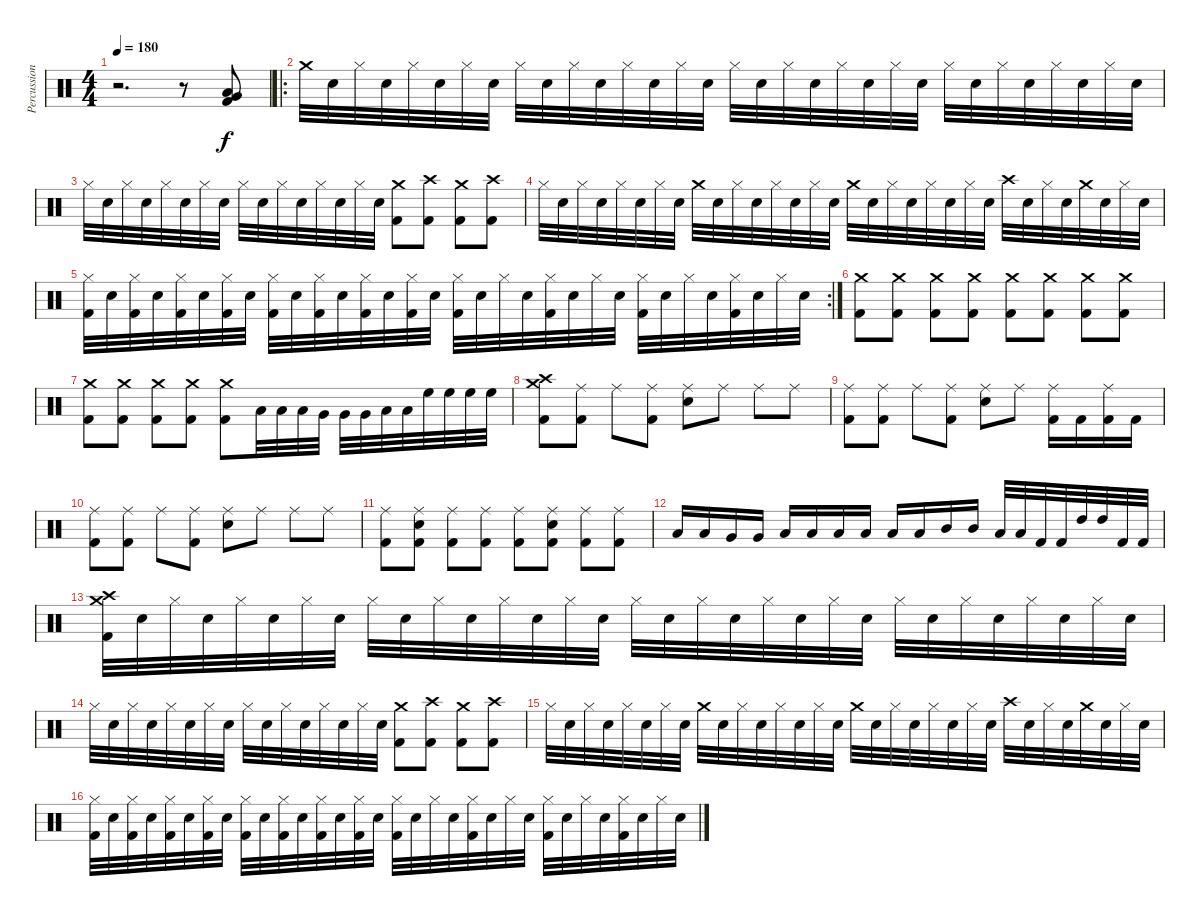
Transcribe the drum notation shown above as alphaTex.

\track ("Percussion" "Percussion") {instrument percussion}
\staff {score}
\articulation defaults
\ts (4 4)
\tempo 180
\clef neutral
\ks c
r.2{d dy f} r.8 ("Very Low Tom (hit)" "Low Tom (hit)" "Kick (hit) 2").8 |
\ro "Crash medium (hit)".32 "Snare (hit) 2".32 "Hi-Hat (closed)".32 "Snare (hit) 2".32 "Hi-Hat (closed)".32 "Snare (hit) 2".32 "Hi-Hat (closed)".32 "Snare (hit) 2".32 "Hi-Hat (closed)".32 "Snare (hit) 2".32 "Hi-Hat (closed)".32 "Snare (hit) 2".32 "Hi-Hat (closed)".32 "Snare (hit) 2".32 "Hi-Hat (closed)".32 "Snare (hit) 2".32 "Hi-Hat (closed)".32 "Snare (hit) 2".32 "Hi-Hat (closed)".32 "Snare (hit) 2".32 "Hi-Hat (closed)".32 "Snare (hit) 2".32 "Hi-Hat (closed)".32 "Snare (hit) 2".32 "Hi-Hat (closed)".32 "Snare (hit) 2".32 "Hi-Hat (closed)".32 "Snare (hit) 2".32 "Hi-Hat (closed)".32 "Snare (hit) 2".32 "Hi-Hat (closed)".32 "Snare (hit) 2".32
|
"Hi-Hat (closed)".32 "Snare (hit) 2".32 "Hi-Hat (closed)".32 "Snare (hit) 2".32 "Hi-Hat (closed)".32 "Snare (hit) 2".32 "Hi-Hat (closed)".32 "Snare (hit) 2".32 "Hi-Hat (closed)".32 "Snare (hit) 2".32 "Hi-Hat (closed)".32 "Snare (hit) 2".32 "Hi-Hat (closed)".32 "Snare (hit) 2".32 "Hi-Hat (closed)".32 "Snare (hit) 2".32 ("Crash medium (hit)" "Kick (hit) 2").8 ("Crash high (hit)" "Kick (hit) 2").8 ("Crash medium (hit)" "Kick (hit) 2").8 ("Crash high (hit)" "Kick (hit) 2").8 |
"Hi-Hat (closed)".32 "Snare (hit) 2".32 "Hi-Hat (closed)".32 "Snare (hit) 2".32 "Hi-Hat (closed)".32 "Snare (hit) 2".32 "Hi-Hat (closed)".32 "Snare (hit) 2".32 "Crash medium (hit)".32 "Snare (hit) 2".32 "Hi-Hat (closed)".32 "Snare (hit) 2".32 "Hi-Hat (closed)".32 "Snare (hit) 2".32 "Hi-Hat (closed)".32 "Snare (hit) 2".32 "Crash medium (hit)".32 "Snare (hit) 2".32 "Hi-Hat (closed)".32 "Snare (hit) 2".32 "Hi-Hat (closed)".32 "Snare (hit) 2".32 "Hi-Hat (closed)".32 "Snare (hit) 2".32 "Crash high (hit)".32 "Snare (hit) 2".32 "Hi-Hat (closed)".32 "Snare (hit) 2".32 "Crash medium (hit)".32 "Snare (hit) 2".32 "Hi-Hat (closed)".32 "Snare (hit) 2".32 |
\rc 2
("Hi-Hat (closed)" "Kick (hit) 2").32 "Snare (hit) 2".32 ("Hi-Hat (closed)" "Kick (hit) 2").32 "Snare (hit) 2".32 ("Hi-Hat (closed)" "Kick (hit) 2").32 "Snare (hit) 2".32 ("Hi-Hat (closed)" "Kick (hit) 2").32 "Snare (hit) 2".32 ("Hi-Hat (closed)" "Kick (hit) 2").32 "Snare (hit) 2".32 ("Hi-Hat (closed)" "Kick (hit) 2").32 "Snare (hit) 2".32 ("Hi-Hat (closed)" "Kick (hit) 2").32 "Snare (hit) 2".32 ("Hi-Hat (closed)" "Kick (hit) 2").32 "Snare (hit) 2".32 ("Hi-Hat (closed)" "Kick (hit) 2").32 "Snare (hit) 2".32 "Hi-Hat (closed)".32 "Snare (hit) 2".32 ("Hi-Hat (closed)" "Kick (hit) 2").32 "Snare (hit) 2".32 "Hi-Hat (closed)".32 "Snare (hit) 2".32 ("Hi-Hat (closed)" "Kick (hit) 2").32 "Snare (hit) 2".32 "Hi-Hat (closed)".32 "Snare (hit) 2".32 ("Hi-Hat (closed)" "Kick (hit) 2").32 "Snare (hit) 2".32 "Hi-Hat (closed)".32 "Snare (hit) 2".32 |
("Crash medium (hit)" "Kick (hit) 2").8 ("Crash medium (hit)" "Kick (hit) 2").8 ("Crash medium (hit)" "Kick (hit) 2").8 ("Crash medium (hit)" "Kick (hit) 2").8 ("Crash medium (hit)" "Kick (hit) 2").8 ("Crash medium (hit)" "Kick (hit) 2").8 ("Crash medium (hit)" "Kick (hit) 2").8 ("Crash medium (hit)" "Kick (hit) 2").8 |
("Crash medium (hit)" "Kick (hit) 2").8 ("Crash medium (hit)" "Kick (hit) 2").8 ("Crash medium (hit)" "Kick (hit) 2").8 ("Crash medium (hit)" "Kick (hit) 2").8 ("Crash medium (hit)" "Kick (hit) 2").8 "Low Tom (hit)".32 "Low Tom (hit)".32 "Low Tom (hit)".32 "Very Low Tom (hit)".32 "Very Low Tom (hit)".32 "Very Low Tom (hit)".32 "Low Tom (hit)".32 "Low Tom (hit)".32 "High Floor Tom (hit)".32 "High Floor Tom (hit)".32 "High Floor Tom (hit)".32 "High Floor Tom (hit)".32 |
("Crash high (hit)" "Crash medium (hit)" "Kick (hit) 2").8 ("Ride (middle)" "Kick (hit) 2").8 "Ride (middle)".8 ("Ride (middle)" "Kick (hit) 2").8 ("Ride (middle)" "Snare (hit) 2").8 "Ride (middle)".8 "Ride (middle)".8 "Ride (middle)".8 |
("Ride (middle)" "Kick (hit) 2").8 ("Ride (middle)" "Kick (hit) 2").8 "Ride (middle)".8 ("Ride (middle)" "Kick (hit) 2").8 ("Ride (middle)" "Snare (hit) 2").8 "Ride (middle)".8 ("Ride (middle)" "Kick (hit) 2").16 "Kick (hit) 2".16 ("Ride (middle)" "Kick (hit) 2").16 "Kick (hit) 2".16 |
("Ride (middle)" "Kick (hit) 2").8 ("Ride (middle)" "Kick (hit) 2").8 "Ride (middle)".8 ("Ride (middle)" "Kick (hit) 2").8 ("Ride (middle)" "Snare (hit) 2").8 "Ride (middle)".8 "Ride (middle)".8 "Ride (middle)".8 |
("Ride (middle)" "Kick (hit) 2").8 ("Ride (middle)" "Snare (hit) 2" "Kick (hit) 2").8 ("Ride (middle)" "Kick (hit) 2").8 ("Ride (middle)" "Kick (hit) 2").8 ("Ride (middle)" "Kick (hit) 2").8 ("Ride (middle)" "Snare (hit) 2" "Kick (hit) 2").8 ("Ride (middle)" "Kick (hit) 2").8 ("Ride (middle)" "Kick (hit) 2").8 |
"Low Tom (hit)".16 "Low Tom (hit)".16 "Very Low Tom (hit)".16 "Very Low Tom (hit)".16 "Low Tom (hit)".16 "Low Tom (hit)".16 "Low Floor Tom (hit)".16 "Low Floor Tom (hit)".16 "Low Tom (hit)".16 "Low Tom (hit)".16 "Mid Tom (hit)".16 "Mid Tom (hit)".16 "Low Tom (hit)".32 "Low Tom (hit)".32 "Kick (hit) 2".32 "Kick (hit) 2".32 "High Tom (hit)".32 "High Tom (hit)".32 "Kick (hit) 2".32 "Kick (hit) 2".32 |
("Crash medium (hit)" "Crash high (hit)" "Kick (hit) 2").32 "Snare (hit) 2".32 "Hi-Hat (closed)".32 "Snare (hit) 2".32 "Hi-Hat (closed)".32 "Snare (hit) 2".32 "Hi-Hat (closed)".32 "Snare (hit) 2".32 "Hi-Hat (closed)".32 "Snare (hit) 2".32 "Hi-Hat (closed)".32 "Snare (hit) 2".32 "Hi-Hat (closed)".32 "Snare (hit) 2".32 "Hi-Hat (closed)".32 "Snare (hit) 2".32 "Hi-Hat (closed)".32 "Snare (hit) 2".32 "Hi-Hat (closed)".32 "Snare (hit) 2".32 "Hi-Hat (closed)".32 "Snare (hit) 2".32 "Hi-Hat (closed)".32 "Snare (hit) 2".32 "Hi-Hat (closed)".32 "Snare (hit) 2".32 "Hi-Hat (closed)".32 "Snare (hit) 2".32 "Hi-Hat (closed)".32 "Snare (hit) 2".32 "Hi-Hat (closed)".32 "Snare (hit) 2".32 |
"Hi-Hat (closed)".32 "Snare (hit) 2".32 "Hi-Hat (closed)".32 "Snare (hit) 2".32 "Hi-Hat (closed)".32 "Snare (hit) 2".32 "Hi-Hat (closed)".32 "Snare (hit) 2".32 "Hi-Hat (closed)".32 "Snare (hit) 2".32 "Hi-Hat (closed)".32 "Snare (hit) 2".32 "Hi-Hat (closed)".32 "Snare (hit) 2".32 "Hi-Hat (closed)".32 "Snare (hit) 2".32 ("Crash medium (hit)" "Kick (hit) 2").8 ("Crash high (hit)" "Kick (hit) 2").8 ("Crash medium (hit)" "Kick (hit) 2").8 ("Crash high (hit)" "Kick (hit) 2").8 |
"Hi-Hat (closed)".32 "Snare (hit) 2".32 "Hi-Hat (closed)".32 "Snare (hit) 2".32 "Hi-Hat (closed)".32 "Snare (hit) 2".32 "Hi-Hat (closed)".32 "Snare (hit) 2".32 "Crash medium (hit)".32 "Snare (hit) 2".32 "Hi-Hat (closed)".32 "Snare (hit) 2".32 "Hi-Hat (closed)".32 "Snare (hit) 2".32 "Hi-Hat (closed)".32 "Snare (hit) 2".32 "Crash medium (hit)".32 "Snare (hit) 2".32 "Hi-Hat (closed)".32 "Snare (hit) 2".32 "Hi-Hat (closed)".32 "Snare (hit) 2".32 "Hi-Hat (closed)".32 "Snare (hit) 2".32 "Crash high (hit)".32 "Snare (hit) 2".32 "Hi-Hat (closed)".32 "Snare (hit) 2".32 "Crash medium (hit)".32 "Snare (hit) 2".32 "Hi-Hat (closed)".32 "Snare (hit) 2".32 |
("Hi-Hat (closed)" "Kick (hit) 2").32 "Snare (hit) 2".32 ("Hi-Hat (closed)" "Kick (hit) 2").32 "Snare (hit) 2".32 ("Hi-Hat (closed)" "Kick (hit) 2").32 "Snare (hit) 2".32 ("Hi-Hat (closed)" "Kick (hit) 2").32 "Snare (hit) 2".32 ("Hi-Hat (closed)" "Kick (hit) 2").32 "Snare (hit) 2".32 ("Hi-Hat (closed)" "Kick (hit) 2").32 "Snare (hit) 2".32 ("Hi-Hat (closed)" "Kick (hit) 2").32 "Snare (hit) 2".32 ("Hi-Hat (closed)" "Kick (hit) 2").32 "Snare (hit) 2".32 ("Hi-Hat (closed)" "Kick (hit) 2").32 "Snare (hit) 2".32 "Hi-Hat (closed)".32 "Snare (hit) 2".32 ("Hi-Hat (closed)" "Kick (hit) 2").32 "Snare (hit) 2".32 "Hi-Hat (closed)".32 "Snare (hit) 2".32 ("Hi-Hat (closed)" "Kick (hit) 2").32 "Snare (hit) 2".32 "Hi-Hat (closed)".32 "Snare (hit) 2".32 ("Hi-Hat (closed)" "Kick (hit) 2").32 "Snare (hit) 2".32 "Hi-Hat (closed)".32 "Snare (hit) 2".32
